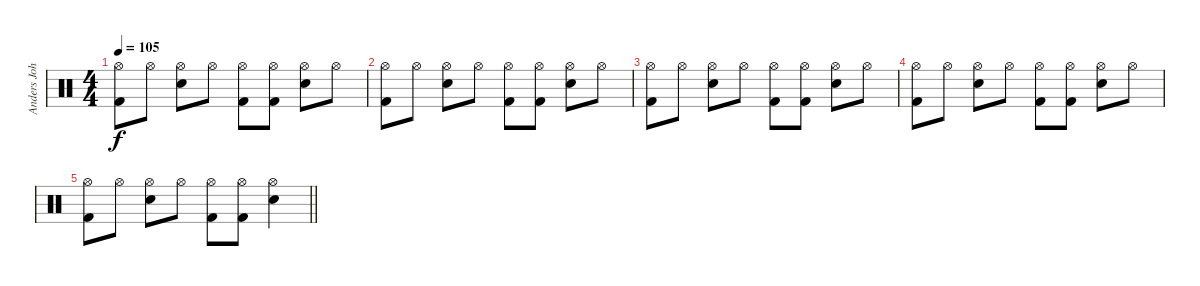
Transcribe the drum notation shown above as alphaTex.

\track ("Anders Johansson" "Anders Joh") {instrument percussion}
\staff {score}
\articulation defaults
\ts (4 4)
\tempo 105
\clef neutral
\ks c
("Hi-Hat (open)" "Kick (hit) 2").8{dy f} "Hi-Hat (open)".8 ("Hi-Hat (open)" "Snare (hit) 2").8 "Hi-Hat (open)".8 ("Hi-Hat (open)" "Kick (hit) 2").8 ("Hi-Hat (open)" "Kick (hit) 2").8 ("Hi-Hat (open)" "Snare (hit) 2").8 "Hi-Hat (open)".8 |
("Hi-Hat (open)" "Kick (hit) 2").8 "Hi-Hat (open)".8 ("Hi-Hat (open)" "Snare (hit) 2").8 "Hi-Hat (open)".8 ("Hi-Hat (open)" "Kick (hit) 2").8 ("Hi-Hat (open)" "Kick (hit) 2").8 ("Hi-Hat (open)" "Snare (hit) 2").8 "Hi-Hat (open)".8 |
("Hi-Hat (open)" "Kick (hit) 2").8 "Hi-Hat (open)".8 ("Hi-Hat (open)" "Snare (hit) 2").8 "Hi-Hat (open)".8 ("Hi-Hat (open)" "Kick (hit) 2").8 ("Hi-Hat (open)" "Kick (hit) 2").8 ("Hi-Hat (open)" "Snare (hit) 2").8 "Hi-Hat (open)".8 |
("Hi-Hat (open)" "Kick (hit) 2").8 "Hi-Hat (open)".8 ("Hi-Hat (open)" "Snare (hit) 2").8 "Hi-Hat (open)".8 ("Hi-Hat (open)" "Kick (hit) 2").8 ("Hi-Hat (open)" "Kick (hit) 2").8 ("Hi-Hat (open)" "Snare (hit) 2").8 "Hi-Hat (open)".8 |
\barLineRight lightlight
("Hi-Hat (open)" "Kick (hit) 2").8 "Hi-Hat (open)".8 ("Hi-Hat (open)" "Snare (hit) 2").8 "Hi-Hat (open)".8 ("Hi-Hat (open)" "Kick (hit) 2").8 ("Hi-Hat (open)" "Kick (hit) 2").8 ("Hi-Hat (open)" "Snare (hit) 2").4
